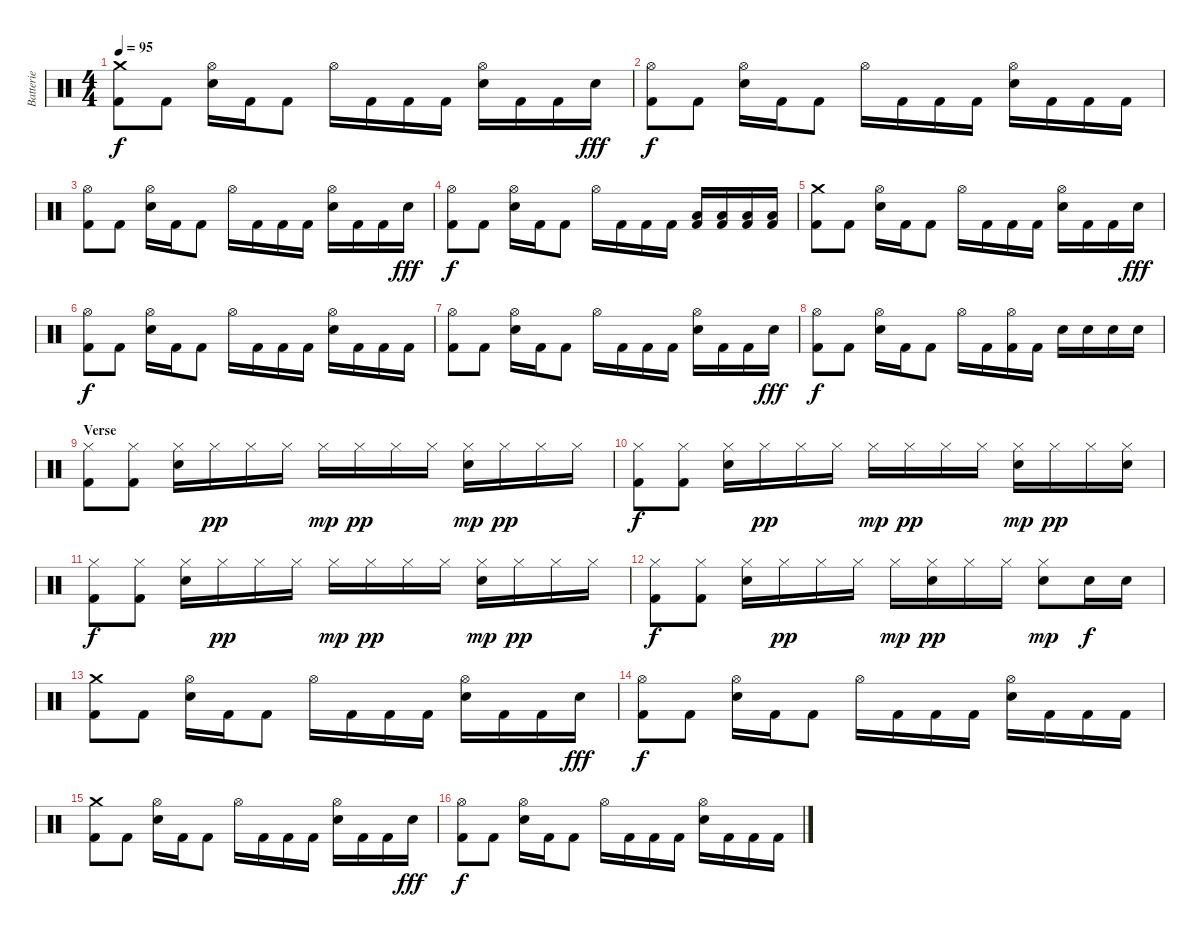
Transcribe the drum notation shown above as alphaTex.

\track ("Batterie" "Batterie") {instrument percussion}
\staff {score}
\articulation defaults
\ts (4 4)
\tempo 95
\clef neutral
\ks c
("Crash medium (hit)" "Kick (hit) 2").8{dy f} "Kick (hit) 2".8 ("Hi-Hat (open)" "Electric Snare (hit)").16 "Kick (hit) 2".16 "Kick (hit) 2".8 "Hi-Hat (open)".16 "Kick (hit) 2".16 "Kick (hit) 2".16 "Kick (hit) 2".16 ("Hi-Hat (open)" "Electric Snare (hit)").16 "Kick (hit) 2".16 "Kick (hit) 2".16 "Electric Snare (hit)".16{dy fff} |
("Hi-Hat (open)" "Kick (hit) 2").8{dy f} "Kick (hit) 2".8 ("Hi-Hat (open)" "Electric Snare (hit)").16 "Kick (hit) 2".16 "Kick (hit) 2".8 "Hi-Hat (open)".16 "Kick (hit) 2".16 "Kick (hit) 2".16 "Kick (hit) 2".16 ("Hi-Hat (open)" "Electric Snare (hit)").16 "Kick (hit) 2".16 "Kick (hit) 2".16 "Kick (hit) 2".16 |
("Hi-Hat (open)" "Kick (hit) 2").8 "Kick (hit) 2".8 ("Hi-Hat (open)" "Electric Snare (hit)").16 "Kick (hit) 2".16 "Kick (hit) 2".8 "Hi-Hat (open)".16 "Kick (hit) 2".16 "Kick (hit) 2".16 "Kick (hit) 2".16 ("Hi-Hat (open)" "Electric Snare (hit)").16 "Kick (hit) 2".16 "Kick (hit) 2".16 "Electric Snare (hit)".16{dy fff} |
("Hi-Hat (open)" "Kick (hit) 2").8{dy f} "Kick (hit) 2".8 ("Hi-Hat (open)" "Electric Snare (hit)").16 "Kick (hit) 2".16 "Kick (hit) 2".8 "Hi-Hat (open)".16 "Kick (hit) 2".16 "Kick (hit) 2".16 "Kick (hit) 2".16 ("Low Floor Tom (hit)" "Kick (hit) 2").16 ("Low Floor Tom (hit)" "Kick (hit) 2").16 ("Low Floor Tom (hit)" "Kick (hit) 2").16 ("Low Floor Tom (hit)" "Kick (hit) 2").16 |
("Crash medium (hit)" "Kick (hit) 2").8 "Kick (hit) 2".8 ("Hi-Hat (open)" "Electric Snare (hit)").16 "Kick (hit) 2".16 "Kick (hit) 2".8 "Hi-Hat (open)".16 "Kick (hit) 2".16 "Kick (hit) 2".16 "Kick (hit) 2".16 ("Hi-Hat (open)" "Electric Snare (hit)").16 "Kick (hit) 2".16 "Kick (hit) 2".16 "Electric Snare (hit)".16{dy fff} |
("Hi-Hat (open)" "Kick (hit) 2").8{dy f} "Kick (hit) 2".8 ("Hi-Hat (open)" "Electric Snare (hit)").16 "Kick (hit) 2".16 "Kick (hit) 2".8 "Hi-Hat (open)".16 "Kick (hit) 2".16 "Kick (hit) 2".16 "Kick (hit) 2".16 ("Hi-Hat (open)" "Electric Snare (hit)").16 "Kick (hit) 2".16 "Kick (hit) 2".16 "Kick (hit) 2".16 |
("Hi-Hat (open)" "Kick (hit) 2").8 "Kick (hit) 2".8 ("Hi-Hat (open)" "Electric Snare (hit)").16 "Kick (hit) 2".16 "Kick (hit) 2".8 "Hi-Hat (open)".16 "Kick (hit) 2".16 "Kick (hit) 2".16 "Kick (hit) 2".16 ("Hi-Hat (open)" "Electric Snare (hit)").16 "Kick (hit) 2".16 "Kick (hit) 2".16 "Electric Snare (hit)".16{dy fff} |
("Hi-Hat (open)" "Kick (hit) 2").8{dy f} "Kick (hit) 2".8 ("Hi-Hat (open)" "Electric Snare (hit)").16 "Kick (hit) 2".16 "Kick (hit) 2".8 "Hi-Hat (open)".16 "Kick (hit) 2".16 ("Hi-Hat (open)" "Kick (hit) 2").16 "Kick (hit) 2".16 "Electric Snare (hit)".16 "Electric Snare (hit)".16 "Electric Snare (hit)".16 "Electric Snare (hit)".16 |
\section ("" "Verse")
("Hi-Hat (closed)" "Kick (hit) 2").8 ("Hi-Hat (closed)" "Kick (hit) 2").8 ("Hi-Hat (closed)" "Electric Snare (hit)").16 "Hi-Hat (closed)".16{dy pp} "Hi-Hat (closed)".16 "Hi-Hat (closed)".16 "Hi-Hat (closed)".16{dy mp} "Hi-Hat (closed)".16{dy pp} "Hi-Hat (closed)".16 "Hi-Hat (closed)".16 ("Hi-Hat (closed)" "Electric Snare (hit)").16{dy mp} "Hi-Hat (closed)".16{dy pp} "Hi-Hat (closed)".16 "Hi-Hat (closed)".16 |
("Hi-Hat (closed)" "Kick (hit) 2").8{dy f} ("Hi-Hat (closed)" "Kick (hit) 2").8 ("Hi-Hat (closed)" "Electric Snare (hit)").16 "Hi-Hat (closed)".16{dy pp} "Hi-Hat (closed)".16 "Hi-Hat (closed)".16 "Hi-Hat (closed)".16{dy mp} "Hi-Hat (closed)".16{dy pp} "Hi-Hat (closed)".16 "Hi-Hat (closed)".16 ("Hi-Hat (closed)" "Electric Snare (hit)").16{dy mp} "Hi-Hat (closed)".16{dy pp} "Hi-Hat (closed)".16 ("Hi-Hat (closed)" "Electric Snare (hit)").16 |
("Hi-Hat (closed)" "Kick (hit) 2").8{dy f} ("Hi-Hat (closed)" "Kick (hit) 2").8 ("Hi-Hat (closed)" "Electric Snare (hit)").16 "Hi-Hat (closed)".16{dy pp} "Hi-Hat (closed)".16 "Hi-Hat (closed)".16 "Hi-Hat (closed)".16{dy mp} "Hi-Hat (closed)".16{dy pp} "Hi-Hat (closed)".16 "Hi-Hat (closed)".16 ("Hi-Hat (closed)" "Electric Snare (hit)").16{dy mp} "Hi-Hat (closed)".16{dy pp} "Hi-Hat (closed)".16 "Hi-Hat (closed)".16 |
("Hi-Hat (closed)" "Kick (hit) 2").8{dy f} ("Hi-Hat (closed)" "Kick (hit) 2").8 ("Hi-Hat (closed)" "Electric Snare (hit)").16 "Hi-Hat (closed)".16{dy pp} "Hi-Hat (closed)".16 "Hi-Hat (closed)".16 "Hi-Hat (closed)".16{dy mp} ("Hi-Hat (closed)" "Electric Snare (hit)").16{dy pp} "Hi-Hat (closed)".16 "Hi-Hat (closed)".16 ("Hi-Hat (closed)" "Electric Snare (hit)").8{dy mp} "Electric Snare (hit)".16{dy f} "Electric Snare (hit)".16 |
("Crash medium (hit)" "Kick (hit) 2").8 "Kick (hit) 2".8 ("Hi-Hat (open)" "Electric Snare (hit)").16 "Kick (hit) 2".16 "Kick (hit) 2".8 "Hi-Hat (open)".16 "Kick (hit) 2".16 "Kick (hit) 2".16 "Kick (hit) 2".16 ("Hi-Hat (open)" "Electric Snare (hit)").16 "Kick (hit) 2".16 "Kick (hit) 2".16 "Electric Snare (hit)".16{dy fff} |
("Hi-Hat (open)" "Kick (hit) 2").8{dy f} "Kick (hit) 2".8 ("Hi-Hat (open)" "Electric Snare (hit)").16 "Kick (hit) 2".16 "Kick (hit) 2".8 "Hi-Hat (open)".16 "Kick (hit) 2".16 "Kick (hit) 2".16 "Kick (hit) 2".16 ("Hi-Hat (open)" "Electric Snare (hit)").16 "Kick (hit) 2".16 "Kick (hit) 2".16 "Kick (hit) 2".16 |
("Crash medium (hit)" "Kick (hit) 2").8 "Kick (hit) 2".8 ("Hi-Hat (open)" "Electric Snare (hit)").16 "Kick (hit) 2".16 "Kick (hit) 2".8 "Hi-Hat (open)".16 "Kick (hit) 2".16 "Kick (hit) 2".16 "Kick (hit) 2".16 ("Hi-Hat (open)" "Electric Snare (hit)").16 "Kick (hit) 2".16 "Kick (hit) 2".16 "Electric Snare (hit)".16{dy fff} |
("Hi-Hat (open)" "Kick (hit) 2").8{dy f} "Kick (hit) 2".8 ("Hi-Hat (open)" "Electric Snare (hit)").16 "Kick (hit) 2".16 "Kick (hit) 2".8 "Hi-Hat (open)".16 "Kick (hit) 2".16 "Kick (hit) 2".16 "Kick (hit) 2".16 ("Hi-Hat (open)" "Electric Snare (hit)").16 "Kick (hit) 2".16 "Kick (hit) 2".16 "Kick (hit) 2".16
